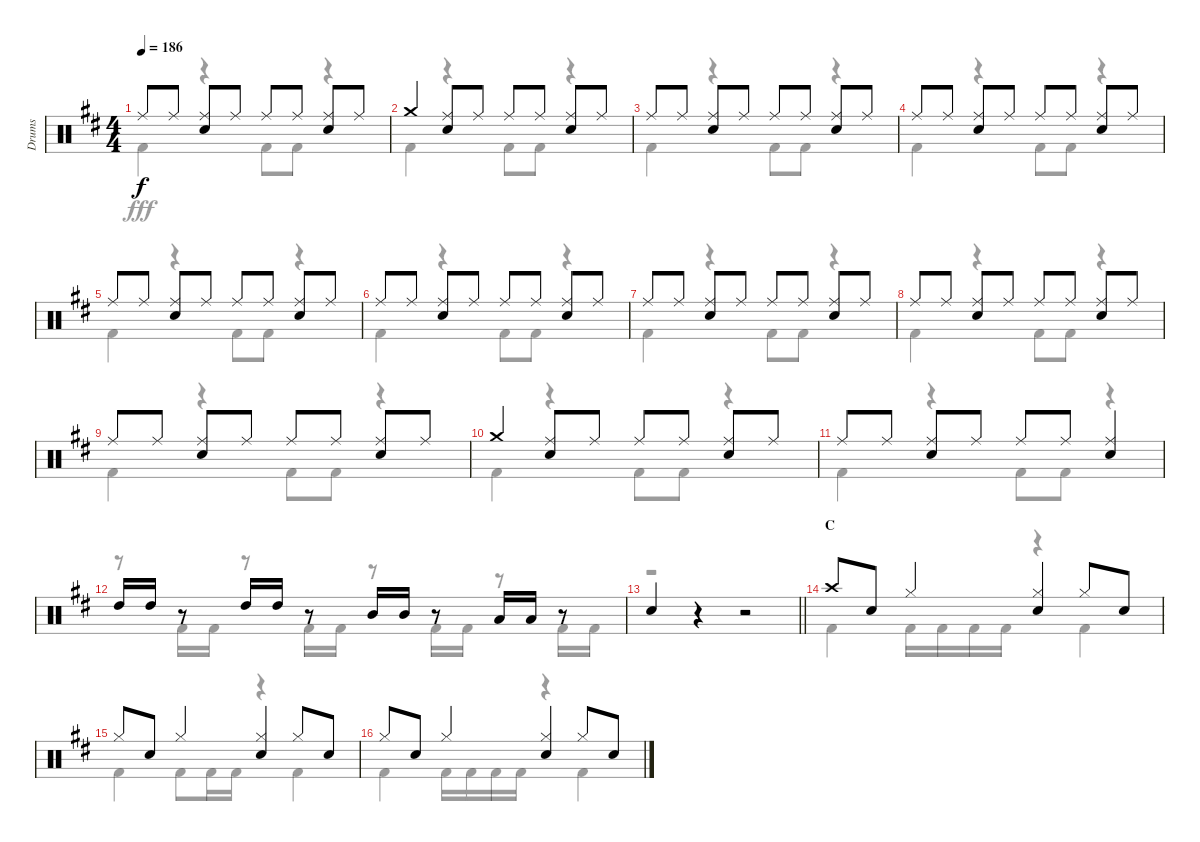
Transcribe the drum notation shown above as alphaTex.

\track ("Drums" "Drums") {instrument percussion}
\staff {score}
\articulation defaults
\voice
\ts (4 4)
\tempo 186
\clef neutral
\ks d "Ride (middle)".8{dy f} "Ride (middle)".8
("Ride (middle)" "Snare (hit) 2").8 "Ride (middle)".8 "Ride (middle)".8 "Ride (middle)".8 ("Ride (middle)" "Snare (hit) 2").8 "Ride (middle)".8 |
"Crash medium (hit)".4 ("Ride (middle)" "Snare (hit) 2").8 "Ride (middle)".8 "Ride (middle)".8 "Ride (middle)".8 ("Ride (middle)" "Snare (hit) 2").8 "Ride (middle)".8 |
"Ride (middle)".8 "Ride (middle)".8 ("Ride (middle)" "Snare (hit) 2").8 "Ride (middle)".8 "Ride (middle)".8 "Ride (middle)".8 ("Ride (middle)" "Snare (hit) 2").8 "Ride (middle)".8 |
"Ride (middle)".8 "Ride (middle)".8 ("Ride (middle)" "Snare (hit) 2").8 "Ride (middle)".8 "Ride (middle)".8 "Ride (middle)".8 ("Ride (middle)" "Snare (hit) 2").8 "Ride (middle)".8 |
"Ride (middle)".8 "Ride (middle)".8 ("Ride (middle)" "Snare (hit) 2").8 "Ride (middle)".8 "Ride (middle)".8 "Ride (middle)".8 ("Ride (middle)" "Snare (hit) 2").8 "Ride (middle)".8 |
"Ride (middle)".8 "Ride (middle)".8 ("Ride (middle)" "Snare (hit) 2").8 "Ride (middle)".8 "Ride (middle)".8 "Ride (middle)".8 ("Ride (middle)" "Snare (hit) 2").8 "Ride (middle)".8 |
"Ride (middle)".8 "Ride (middle)".8 ("Ride (middle)" "Snare (hit) 2").8 "Ride (middle)".8 "Ride (middle)".8 "Ride (middle)".8 ("Ride (middle)" "Snare (hit) 2").8 "Ride (middle)".8 |
"Ride (middle)".8 "Ride (middle)".8 ("Ride (middle)" "Snare (hit) 2").8 "Ride (middle)".8 "Ride (middle)".8 "Ride (middle)".8 ("Ride (middle)" "Snare (hit) 2").8 "Ride (middle)".8 |
"Ride (middle)".8 "Ride (middle)".8 ("Ride (middle)" "Snare (hit) 2").8 "Ride (middle)".8 "Ride (middle)".8 "Ride (middle)".8 ("Ride (middle)" "Snare (hit) 2").8 "Ride (middle)".8 |
"Crash medium (hit)".4 ("Ride (middle)" "Snare (hit) 2").8 "Ride (middle)".8 "Ride (middle)".8 "Ride (middle)".8 ("Ride (middle)" "Snare (hit) 2").8 "Ride (middle)".8 |
"Ride (middle)".8 "Ride (middle)".8 ("Ride (middle)" "Snare (hit) 2").8 "Ride (middle)".8 "Ride (middle)".8 "Ride (middle)".8 ("Ride (middle)" "Snare (hit) 2").4 |
"High Tom (hit)".16 "High Tom (hit)".16 r.8 "High Tom (hit)".16 "High Tom (hit)".16 r.8 "Mid Tom (hit)".16 "Mid Tom (hit)".16 r.8 "Low Tom (hit)".16 "Low Tom (hit)".16 r.8 |
\barLineRight lightlight "Snare (hit) 2".4
r.4 r.2 |
\section ("" "C")
"Crash high (hit)".8 "Snare (hit) 2".8 "Hi-Hat (closed)".4 ("Hi-Hat (closed)" "Snare (hit) 2").4 "Hi-Hat (closed)".8 "Snare (hit) 2".8 |
"Hi-Hat (closed)".8 "Snare (hit) 2".8 "Hi-Hat (closed)".4 ("Hi-Hat (closed)" "Snare (hit) 2").4 "Hi-Hat (closed)".8 "Snare (hit) 2".8 |
"Hi-Hat (closed)".8 "Snare (hit) 2".8 "Hi-Hat (closed)".4 ("Hi-Hat (closed)" "Snare (hit) 2").4 "Hi-Hat (closed)".8 "Snare (hit) 2".8
\voice
\clef neutral
\ottava regular
\simile none
\ks d "Kick (hit) 2".4{dy fff}
r.4 "Kick (hit) 2".8 "Kick (hit) 2".8 r.4 |
"Kick (hit) 2".4 r.4 "Kick (hit) 2".8 "Kick (hit) 2".8 r.4 |
"Kick (hit) 2".4 r.4 "Kick (hit) 2".8 "Kick (hit) 2".8 r.4 |
"Kick (hit) 2".4 r.4 "Kick (hit) 2".8 "Kick (hit) 2".8 r.4 |
"Kick (hit) 2".4 r.4 "Kick (hit) 2".8 "Kick (hit) 2".8 r.4 |
"Kick (hit) 2".4 r.4 "Kick (hit) 2".8 "Kick (hit) 2".8 r.4 |
"Kick (hit) 2".4 r.4 "Kick (hit) 2".8 "Kick (hit) 2".8 r.4 |
"Kick (hit) 2".4 r.4 "Kick (hit) 2".8 "Kick (hit) 2".8 r.4 |
"Kick (hit) 2".4 r.4 "Kick (hit) 2".8 "Kick (hit) 2".8 r.4 |
"Kick (hit) 2".4 r.4 "Kick (hit) 2".8 "Kick (hit) 2".8 r.4 |
"Kick (hit) 2".4 r.4 "Kick (hit) 2".8 "Kick (hit) 2".8 r.4 |
r.8 "Kick (hit) 2".16 "Kick (hit) 2".16 r.8 "Kick (hit) 2".16 "Kick (hit) 2".16 r.8 "Kick (hit) 2".16 "Kick (hit) 2".16 r.8 "Kick (hit) 2".16 "Kick (hit) 2".16 |
\barLineRight lightlight
r.1 |
"Kick (hit) 2".4 "Kick (hit) 2".16 "Kick (hit) 2".16 "Kick (hit) 2".16 "Kick (hit) 2".16 r.4 "Kick (hit) 2".4 |
"Kick (hit) 2".4 "Kick (hit) 2".8 "Kick (hit) 2".16 "Kick (hit) 2".16 r.4 "Kick (hit) 2".4 |
"Kick (hit) 2".4 "Kick (hit) 2".16 "Kick (hit) 2".16 "Kick (hit) 2".16 "Kick (hit) 2".16 r.4 "Kick (hit) 2".4
